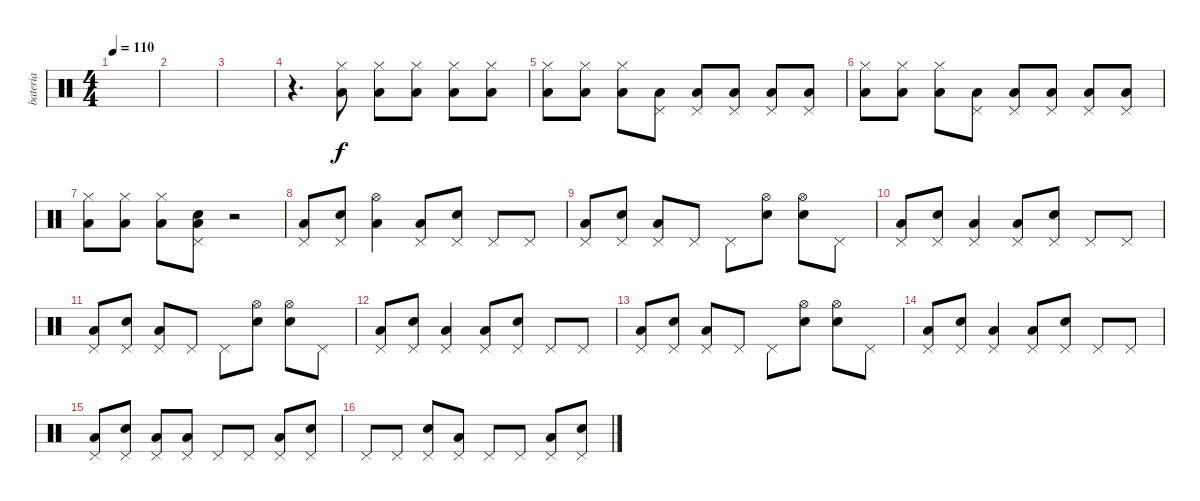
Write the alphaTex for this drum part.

\track ("bateria" "bateria") {instrument percussion}
\staff {score}
\articulation defaults
\ts (4 4)
\tempo 110
\clef neutral
\ks c
|
|
|
r.4{d} ("Hi-Hat (closed)" "Low Floor Tom (hit)").8 ("Hi-Hat (closed)" "Low Floor Tom (hit)").8 ("Hi-Hat (closed)" "Low Floor Tom (hit)").8 ("Hi-Hat (closed)" "Low Floor Tom (hit)").8 ("Hi-Hat (closed)" "Low Floor Tom (hit)").8 |
("Hi-Hat (closed)" "Low Floor Tom (hit)").8 ("Hi-Hat (closed)" "Low Floor Tom (hit)").8 ("Hi-Hat (closed)" "Low Floor Tom (hit)").8 ("Pedal Hi-Hat (hit)" "Low Floor Tom (hit)").8 ("Pedal Hi-Hat (hit)" "Low Floor Tom (hit)").8 ("Pedal Hi-Hat (hit)" "Low Floor Tom (hit)").8 ("Pedal Hi-Hat (hit)" "Low Floor Tom (hit)").8 ("Pedal Hi-Hat (hit)" "Low Floor Tom (hit)").8 |
("Hi-Hat (closed)" "Low Floor Tom (hit)").8 ("Hi-Hat (closed)" "Low Floor Tom (hit)").8 ("Hi-Hat (closed)" "Low Floor Tom (hit)").8 ("Pedal Hi-Hat (hit)" "Low Floor Tom (hit)").8 ("Pedal Hi-Hat (hit)" "Low Floor Tom (hit)").8 ("Pedal Hi-Hat (hit)" "Low Floor Tom (hit)").8 ("Pedal Hi-Hat (hit)" "Low Floor Tom (hit)").8 ("Pedal Hi-Hat (hit)" "Low Floor Tom (hit)").8 |
("Hi-Hat (closed)" "Low Floor Tom (hit)").8 ("Hi-Hat (closed)" "Low Floor Tom (hit)").8 ("Hi-Hat (closed)" "Low Floor Tom (hit)").8 ("Pedal Hi-Hat (hit)" "Electric Snare (hit)" "Low Floor Tom (hit)").8 r.2 |
("Pedal Hi-Hat (hit)" "Low Floor Tom (hit)").8 ("Pedal Hi-Hat (hit)" "Electric Snare (hit)").8 ("Hi-Hat (open)" "Low Floor Tom (hit)").4 ("Pedal Hi-Hat (hit)" "Low Floor Tom (hit)").8 ("Pedal Hi-Hat (hit)" "Electric Snare (hit)").8 "Pedal Hi-Hat (hit)".8 "Pedal Hi-Hat (hit)".8 |
("Pedal Hi-Hat (hit)" "Low Floor Tom (hit)").8 ("Pedal Hi-Hat (hit)" "Electric Snare (hit)").8 ("Pedal Hi-Hat (hit)" "Low Floor Tom (hit)").8 "Pedal Hi-Hat (hit)".8 "Pedal Hi-Hat (hit)".8 ("Hi-Hat (open)" "Electric Snare (hit)").8 ("Hi-Hat (open)" "Electric Snare (hit)").8 "Pedal Hi-Hat (hit)".8 |
("Pedal Hi-Hat (hit)" "Low Floor Tom (hit)").8 ("Pedal Hi-Hat (hit)" "Electric Snare (hit)").8 ("Pedal Hi-Hat (hit)" "Low Floor Tom (hit)").4 ("Pedal Hi-Hat (hit)" "Low Floor Tom (hit)").8 ("Pedal Hi-Hat (hit)" "Electric Snare (hit)").8 "Pedal Hi-Hat (hit)".8 "Pedal Hi-Hat (hit)".8 |
("Pedal Hi-Hat (hit)" "Low Floor Tom (hit)").8 ("Pedal Hi-Hat (hit)" "Electric Snare (hit)").8 ("Pedal Hi-Hat (hit)" "Low Floor Tom (hit)").8 "Pedal Hi-Hat (hit)".8 "Pedal Hi-Hat (hit)".8 ("Hi-Hat (open)" "Electric Snare (hit)").8 ("Hi-Hat (open)" "Electric Snare (hit)").8 "Pedal Hi-Hat (hit)".8 |
("Pedal Hi-Hat (hit)" "Low Floor Tom (hit)").8 ("Pedal Hi-Hat (hit)" "Electric Snare (hit)").8 ("Pedal Hi-Hat (hit)" "Low Floor Tom (hit)").4 ("Pedal Hi-Hat (hit)" "Low Floor Tom (hit)").8 ("Pedal Hi-Hat (hit)" "Electric Snare (hit)").8 "Pedal Hi-Hat (hit)".8 "Pedal Hi-Hat (hit)".8 |
("Pedal Hi-Hat (hit)" "Low Floor Tom (hit)").8 ("Pedal Hi-Hat (hit)" "Electric Snare (hit)").8 ("Pedal Hi-Hat (hit)" "Low Floor Tom (hit)").8 "Pedal Hi-Hat (hit)".8 "Pedal Hi-Hat (hit)".8 ("Hi-Hat (open)" "Electric Snare (hit)").8 ("Hi-Hat (open)" "Electric Snare (hit)").8 "Pedal Hi-Hat (hit)".8 |
("Pedal Hi-Hat (hit)" "Low Floor Tom (hit)").8 ("Pedal Hi-Hat (hit)" "Electric Snare (hit)").8 ("Pedal Hi-Hat (hit)" "Low Floor Tom (hit)").4 ("Pedal Hi-Hat (hit)" "Low Floor Tom (hit)").8 ("Pedal Hi-Hat (hit)" "Electric Snare (hit)").8 "Pedal Hi-Hat (hit)".8 "Pedal Hi-Hat (hit)".8 |
("Pedal Hi-Hat (hit)" "Low Floor Tom (hit)").8 ("Pedal Hi-Hat (hit)" "Electric Snare (hit)").8 ("Pedal Hi-Hat (hit)" "Low Floor Tom (hit)").8 ("Pedal Hi-Hat (hit)" "Low Floor Tom (hit)").8 "Pedal Hi-Hat (hit)".8 "Pedal Hi-Hat (hit)".8 ("Pedal Hi-Hat (hit)" "Low Floor Tom (hit)").8 ("Pedal Hi-Hat (hit)" "Electric Snare (hit)").8 |
"Pedal Hi-Hat (hit)".8 "Pedal Hi-Hat (hit)".8 ("Pedal Hi-Hat (hit)" "Electric Snare (hit)").8 ("Pedal Hi-Hat (hit)" "Low Floor Tom (hit)").8 "Pedal Hi-Hat (hit)".8 "Pedal Hi-Hat (hit)".8 ("Pedal Hi-Hat (hit)" "Low Floor Tom (hit)").8 ("Pedal Hi-Hat (hit)" "Electric Snare (hit)").8
